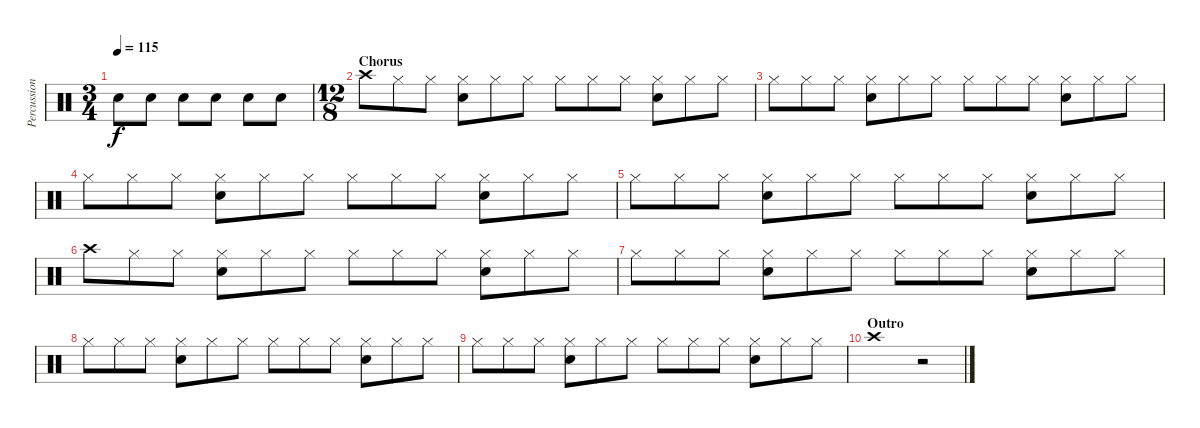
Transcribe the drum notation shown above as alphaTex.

\track ("Percussions" "Percussion") {instrument percussion}
\staff {score}
\articulation defaults
\ts (3 4)
\tempo 115
\clef neutral
\ks c "Snare (hit) 2".8{dy f} "Snare (hit) 2".8 "Snare (hit) 2".8 "Snare (hit) 2".8 "Snare (hit) 2".8 "Snare (hit) 2".8
|
\ts (12 8)
\section ("" "Chorus")
"Crash high (hit)".8 "Hi-Hat (closed)".8 "Hi-Hat (closed)".8 ("Hi-Hat (closed)" "Electric Snare (hit)").8 "Hi-Hat (closed)".8 "Hi-Hat (closed)".8 "Hi-Hat (closed)".8 "Hi-Hat (closed)".8 "Hi-Hat (closed)".8 ("Hi-Hat (closed)" "Electric Snare (hit)").8 "Hi-Hat (closed)".8 "Hi-Hat (closed)".8 |
"Hi-Hat (closed)".8 "Hi-Hat (closed)".8 "Hi-Hat (closed)".8 ("Hi-Hat (closed)" "Electric Snare (hit)").8 "Hi-Hat (closed)".8 "Hi-Hat (closed)".8 "Hi-Hat (closed)".8 "Hi-Hat (closed)".8 "Hi-Hat (closed)".8 ("Hi-Hat (closed)" "Electric Snare (hit)").8 "Hi-Hat (closed)".8 "Hi-Hat (closed)".8 |
"Hi-Hat (closed)".8 "Hi-Hat (closed)".8 "Hi-Hat (closed)".8 ("Hi-Hat (closed)" "Electric Snare (hit)").8 "Hi-Hat (closed)".8 "Hi-Hat (closed)".8 "Hi-Hat (closed)".8 "Hi-Hat (closed)".8 "Hi-Hat (closed)".8 ("Hi-Hat (closed)" "Electric Snare (hit)").8 "Hi-Hat (closed)".8 "Hi-Hat (closed)".8 |
"Hi-Hat (closed)".8 "Hi-Hat (closed)".8 "Hi-Hat (closed)".8 ("Hi-Hat (closed)" "Electric Snare (hit)").8 "Hi-Hat (closed)".8 "Hi-Hat (closed)".8 "Hi-Hat (closed)".8 "Hi-Hat (closed)".8 "Hi-Hat (closed)".8 ("Hi-Hat (closed)" "Electric Snare (hit)").8 "Hi-Hat (closed)".8 "Hi-Hat (closed)".8 |
"Crash high (hit)".8 "Hi-Hat (closed)".8 "Hi-Hat (closed)".8 ("Hi-Hat (closed)" "Electric Snare (hit)").8 "Hi-Hat (closed)".8 "Hi-Hat (closed)".8 "Hi-Hat (closed)".8 "Hi-Hat (closed)".8 "Hi-Hat (closed)".8 ("Hi-Hat (closed)" "Electric Snare (hit)").8 "Hi-Hat (closed)".8 "Hi-Hat (closed)".8 |
"Hi-Hat (closed)".8 "Hi-Hat (closed)".8 "Hi-Hat (closed)".8 ("Hi-Hat (closed)" "Electric Snare (hit)").8 "Hi-Hat (closed)".8 "Hi-Hat (closed)".8 "Hi-Hat (closed)".8 "Hi-Hat (closed)".8 "Hi-Hat (closed)".8 ("Hi-Hat (closed)" "Electric Snare (hit)").8 "Hi-Hat (closed)".8 "Hi-Hat (closed)".8 |
"Hi-Hat (closed)".8 "Hi-Hat (closed)".8 "Hi-Hat (closed)".8 ("Hi-Hat (closed)" "Electric Snare (hit)").8 "Hi-Hat (closed)".8 "Hi-Hat (closed)".8 "Hi-Hat (closed)".8 "Hi-Hat (closed)".8 "Hi-Hat (closed)".8 ("Hi-Hat (closed)" "Electric Snare (hit)").8 "Hi-Hat (closed)".8 "Hi-Hat (closed)".8 |
"Hi-Hat (closed)".8 "Hi-Hat (closed)".8 "Hi-Hat (closed)".8 ("Hi-Hat (closed)" "Electric Snare (hit)").8 "Hi-Hat (closed)".8 "Hi-Hat (closed)".8 "Hi-Hat (closed)".8 "Hi-Hat (closed)".8 "Hi-Hat (closed)".8 ("Hi-Hat (closed)" "Electric Snare (hit)").8 "Hi-Hat (closed)".8 "Hi-Hat (closed)".8 |
\section ("" "Outro")
"Crash high (hit)".1 r.2
